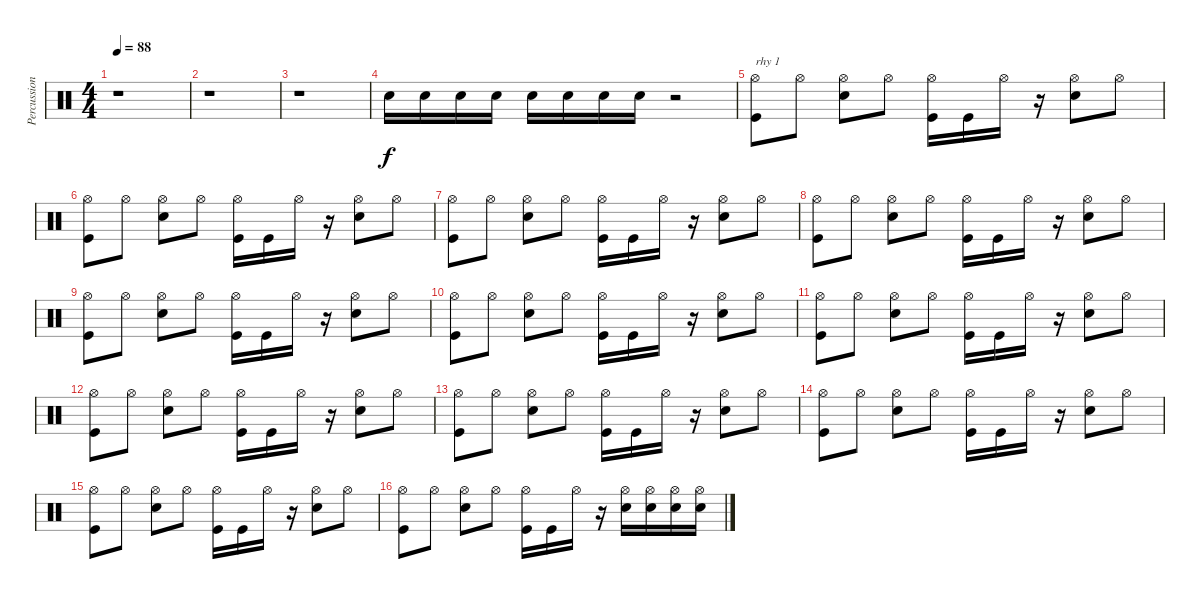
\track ("Percussion" "Percussion") {instrument percussion}
\staff {score}
\articulation defaults
\ts (4 4)
\tempo 88
\clef neutral
\ks c
r.1{dy f} |
r.1 |
r.1 |
"Snare (hit) 2".16 "Snare (hit) 2".16 "Snare (hit) 2".16 "Snare (hit) 2".16 "Snare (hit) 2".16 "Snare (hit) 2".16 "Snare (hit) 2".16 "Snare (hit) 2".16 r.2 |
("Hi-Hat (open)" "Kick (hit)").8{txt "rhy 1"} "Hi-Hat (open)".8 ("Hi-Hat (open)" "Snare (hit) 2").8 "Hi-Hat (open)".8 ("Hi-Hat (open)" "Kick (hit)").16 "Kick (hit)".16 "Hi-Hat (open)".16 r.16 ("Hi-Hat (open)" "Snare (hit) 2").8 "Hi-Hat (open)".8 |
("Hi-Hat (open)" "Kick (hit)").8 "Hi-Hat (open)".8 ("Hi-Hat (open)" "Snare (hit) 2").8 "Hi-Hat (open)".8 ("Hi-Hat (open)" "Kick (hit)").16 "Kick (hit)".16 "Hi-Hat (open)".16 r.16 ("Hi-Hat (open)" "Snare (hit) 2").8 "Hi-Hat (open)".8 |
("Hi-Hat (open)" "Kick (hit)").8 "Hi-Hat (open)".8 ("Hi-Hat (open)" "Snare (hit) 2").8 "Hi-Hat (open)".8 ("Hi-Hat (open)" "Kick (hit)").16 "Kick (hit)".16 "Hi-Hat (open)".16 r.16 ("Hi-Hat (open)" "Snare (hit) 2").8 "Hi-Hat (open)".8 |
("Hi-Hat (open)" "Kick (hit)").8 "Hi-Hat (open)".8 ("Hi-Hat (open)" "Snare (hit) 2").8 "Hi-Hat (open)".8 ("Hi-Hat (open)" "Kick (hit)").16 "Kick (hit)".16 "Hi-Hat (open)".16 r.16 ("Hi-Hat (open)" "Snare (hit) 2").8 "Hi-Hat (open)".8 |
("Hi-Hat (open)" "Kick (hit)").8 "Hi-Hat (open)".8 ("Hi-Hat (open)" "Snare (hit) 2").8 "Hi-Hat (open)".8 ("Hi-Hat (open)" "Kick (hit)").16 "Kick (hit)".16 "Hi-Hat (open)".16 r.16 ("Hi-Hat (open)" "Snare (hit) 2").8 "Hi-Hat (open)".8 |
("Hi-Hat (open)" "Kick (hit)").8 "Hi-Hat (open)".8 ("Hi-Hat (open)" "Snare (hit) 2").8 "Hi-Hat (open)".8 ("Hi-Hat (open)" "Kick (hit)").16 "Kick (hit)".16 "Hi-Hat (open)".16 r.16 ("Hi-Hat (open)" "Snare (hit) 2").8 "Hi-Hat (open)".8 |
("Hi-Hat (open)" "Kick (hit)").8 "Hi-Hat (open)".8 ("Hi-Hat (open)" "Snare (hit) 2").8 "Hi-Hat (open)".8 ("Hi-Hat (open)" "Kick (hit)").16 "Kick (hit)".16 "Hi-Hat (open)".16 r.16 ("Hi-Hat (open)" "Snare (hit) 2").8 "Hi-Hat (open)".8 |
("Hi-Hat (open)" "Kick (hit)").8 "Hi-Hat (open)".8 ("Hi-Hat (open)" "Snare (hit) 2").8 "Hi-Hat (open)".8 ("Hi-Hat (open)" "Kick (hit)").16 "Kick (hit)".16 "Hi-Hat (open)".16 r.16 ("Hi-Hat (open)" "Snare (hit) 2").8 "Hi-Hat (open)".8 |
("Hi-Hat (open)" "Kick (hit)").8 "Hi-Hat (open)".8 ("Hi-Hat (open)" "Snare (hit) 2").8 "Hi-Hat (open)".8 ("Hi-Hat (open)" "Kick (hit)").16 "Kick (hit)".16 "Hi-Hat (open)".16 r.16 ("Hi-Hat (open)" "Snare (hit) 2").8 "Hi-Hat (open)".8 |
("Hi-Hat (open)" "Kick (hit)").8 "Hi-Hat (open)".8 ("Hi-Hat (open)" "Snare (hit) 2").8 "Hi-Hat (open)".8 ("Hi-Hat (open)" "Kick (hit)").16 "Kick (hit)".16 "Hi-Hat (open)".16 r.16 ("Hi-Hat (open)" "Snare (hit) 2").8 "Hi-Hat (open)".8 |
("Hi-Hat (open)" "Kick (hit)").8 "Hi-Hat (open)".8 ("Hi-Hat (open)" "Snare (hit) 2").8 "Hi-Hat (open)".8 ("Hi-Hat (open)" "Kick (hit)").16 "Kick (hit)".16 "Hi-Hat (open)".16 r.16 ("Hi-Hat (open)" "Snare (hit) 2").8 "Hi-Hat (open)".8 |
("Hi-Hat (open)" "Kick (hit)").8 "Hi-Hat (open)".8 ("Hi-Hat (open)" "Snare (hit) 2").8 "Hi-Hat (open)".8 ("Hi-Hat (open)" "Kick (hit)").16 "Kick (hit)".16 "Hi-Hat (open)".16 r.16 ("Hi-Hat (open)" "Snare (hit) 2").16 ("Hi-Hat (open)" "Snare (hit) 2").16 ("Hi-Hat (open)" "Snare (hit) 2").16 ("Hi-Hat (open)" "Snare (hit) 2").16
